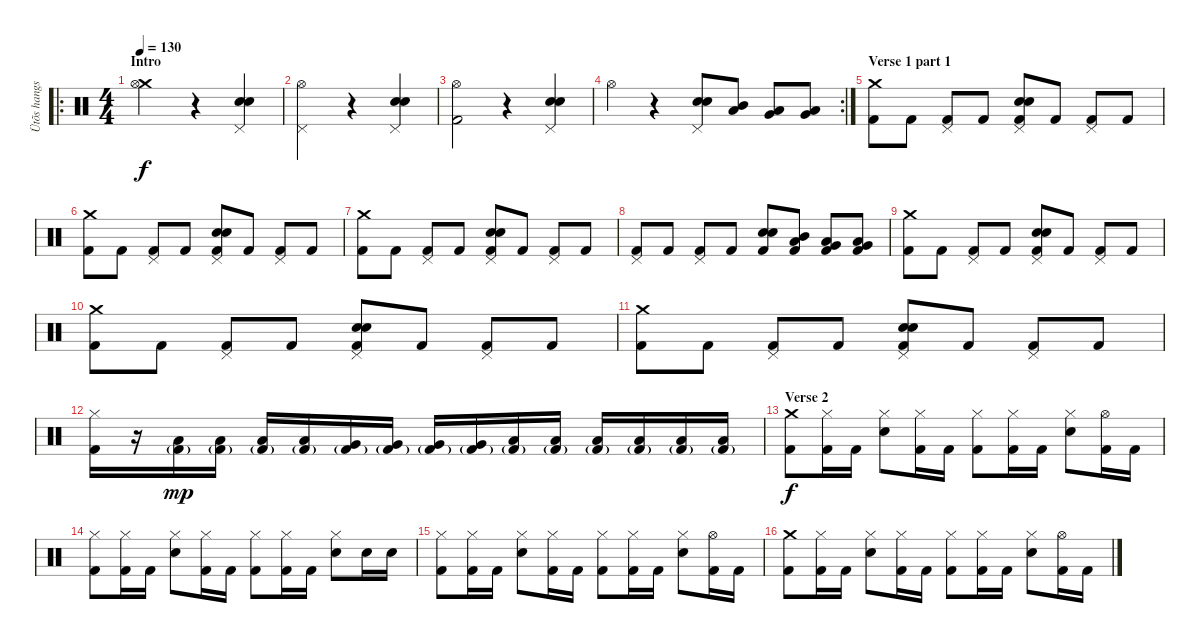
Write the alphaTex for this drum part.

\track ("Ütõs hangszer" "Ütõs hangs") {instrument percussion}
\staff {score}
\articulation defaults
\ro
\ts (4 4)
\section ("" "Intro")
\tempo 130
\clef neutral
\ks c
("Crash medium (hit)" "Hi-Hat (open)").2{dy f} r.4 ("Pedal Hi-Hat (hit)" "Snare (hit) 2" "Electric Snare (hit)").4 |
("Hi-Hat (open)" "Pedal Hi-Hat (hit)").2 r.4 ("Pedal Hi-Hat (hit)" "Snare (hit) 2" "Electric Snare (hit)").4 |
("Hi-Hat (open)" "Kick (hit) 2").2 r.4 ("Pedal Hi-Hat (hit)" "Electric Snare (hit)" "Snare (hit) 2").4 |
\rc 2 "Hi-Hat (open)".4
r.4 ("Pedal Hi-Hat (hit)" "Electric Snare (hit)" "Snare (hit) 2").8 ("Mid Tom (hit)" "Low Tom (hit)").8 ("Very Low Tom (hit)" "Low Tom (hit)").8 ("Low Floor Tom (hit)" "Very Low Tom (hit)").8 |
\section ("" "Verse 1 part 1")
("Crash medium (hit)" "Kick (hit) 2").8 "Kick (hit) 2".8 ("Pedal Hi-Hat (hit)" "Kick (hit) 2").8 "Kick (hit) 2".8 ("Pedal Hi-Hat (hit)" "Snare (hit) 2" "Electric Snare (hit)" "Kick (hit) 2").8 "Kick (hit) 2".8 ("Pedal Hi-Hat (hit)" "Kick (hit) 2").8 "Kick (hit) 2".8 |
("Crash medium (hit)" "Kick (hit) 2").8 "Kick (hit) 2".8 ("Pedal Hi-Hat (hit)" "Kick (hit) 2").8 "Kick (hit) 2".8 ("Pedal Hi-Hat (hit)" "Snare (hit) 2" "Electric Snare (hit)" "Kick (hit) 2").8 "Kick (hit) 2".8 ("Pedal Hi-Hat (hit)" "Kick (hit) 2").8 "Kick (hit) 2".8 |
("Crash medium (hit)" "Kick (hit) 2").8 "Kick (hit) 2".8 ("Pedal Hi-Hat (hit)" "Kick (hit) 2").8 "Kick (hit) 2".8 ("Pedal Hi-Hat (hit)" "Snare (hit) 2" "Electric Snare (hit)" "Kick (hit) 2").8 "Kick (hit) 2".8 ("Pedal Hi-Hat (hit)" "Kick (hit) 2").8 "Kick (hit) 2".8 |
("Pedal Hi-Hat (hit)" "Kick (hit) 2").8 "Kick (hit) 2".8 ("Pedal Hi-Hat (hit)" "Kick (hit) 2").8 "Kick (hit) 2".8 ("Electric Snare (hit)" "Snare (hit) 2" "Kick (hit) 2").8 ("Mid Tom (hit)" "Low Tom (hit)" "Kick (hit) 2").8 ("Very Low Tom (hit)" "Low Tom (hit)" "Kick (hit) 2").8 ("Low Floor Tom (hit)" "Very Low Tom (hit)" "Kick (hit) 2").8 |
("Crash medium (hit)" "Kick (hit) 2").8 "Kick (hit) 2".8 ("Pedal Hi-Hat (hit)" "Kick (hit) 2").8 "Kick (hit) 2".8 ("Pedal Hi-Hat (hit)" "Snare (hit) 2" "Electric Snare (hit)" "Kick (hit) 2").8 "Kick (hit) 2".8 ("Pedal Hi-Hat (hit)" "Kick (hit) 2").8 "Kick (hit) 2".8 |
("Crash medium (hit)" "Kick (hit) 2").8 "Kick (hit) 2".8 ("Pedal Hi-Hat (hit)" "Kick (hit) 2").8 "Kick (hit) 2".8 ("Pedal Hi-Hat (hit)" "Snare (hit) 2" "Electric Snare (hit)" "Kick (hit) 2").8 "Kick (hit) 2".8 ("Pedal Hi-Hat (hit)" "Kick (hit) 2").8 "Kick (hit) 2".8 |
("Crash medium (hit)" "Kick (hit) 2").8 "Kick (hit) 2".8 ("Pedal Hi-Hat (hit)" "Kick (hit) 2").8 "Kick (hit) 2".8 ("Pedal Hi-Hat (hit)" "Snare (hit) 2" "Electric Snare (hit)" "Kick (hit) 2").8 "Kick (hit) 2".8 ("Pedal Hi-Hat (hit)" "Kick (hit) 2").8 "Kick (hit) 2".8 |
("Hi-Hat (closed)" "Kick (hit) 2").16 r.16 ("Kick (hit) 2"{g} "Low Tom (hit)").16{dy mp} ("Kick (hit) 2"{g} "Low Tom (hit)").16 ("Kick (hit) 2"{g} "Low Tom (hit)").16 ("Kick (hit) 2"{g} "Low Tom (hit)").16 ("Kick (hit) 2"{g} "Very Low Tom (hit)").16 ("Kick (hit) 2"{g} "Very Low Tom (hit)").16 ("Kick (hit) 2"{g} "Very Low Tom (hit)").16 ("Kick (hit) 2"{g} "Very Low Tom (hit)").16 ("Kick (hit) 2"{g} "Low Floor Tom (hit)").16 ("Kick (hit) 2"{g} "Low Floor Tom (hit)").16 ("Kick (hit) 2"{g} "Low Floor Tom (hit)").16 ("Kick (hit) 2"{g} "Low Floor Tom (hit)").16 ("Kick (hit) 2"{g} "Low Floor Tom (hit)").16 ("Kick (hit) 2"{g} "Low Floor Tom (hit)").16 |
\section ("" "Verse 2")
("Crash medium (hit)" "Kick (hit) 2").8{dy f} ("Hi-Hat (closed)" "Kick (hit) 2").16 "Kick (hit) 2".16 ("Hi-Hat (closed)" "Snare (hit) 2").8 ("Hi-Hat (closed)" "Kick (hit) 2").16 "Kick (hit) 2".16 ("Hi-Hat (closed)" "Kick (hit) 2").8 ("Hi-Hat (closed)" "Kick (hit) 2").16 "Kick (hit) 2".16 ("Hi-Hat (closed)" "Snare (hit) 2").8 ("Hi-Hat (open)" "Kick (hit) 2").16 "Kick (hit) 2".16 |
("Hi-Hat (closed)" "Kick (hit) 2").8 ("Hi-Hat (closed)" "Kick (hit) 2").16 "Kick (hit) 2".16 ("Hi-Hat (closed)" "Snare (hit) 2").8 ("Hi-Hat (closed)" "Kick (hit) 2").16 "Kick (hit) 2".16 ("Hi-Hat (closed)" "Kick (hit) 2").8 ("Hi-Hat (closed)" "Kick (hit) 2").16 "Kick (hit) 2".16 ("Hi-Hat (closed)" "Snare (hit) 2").8 "Snare (hit) 2".16 "Snare (hit) 2".16 |
("Hi-Hat (closed)" "Kick (hit) 2").8 ("Hi-Hat (closed)" "Kick (hit) 2").16 "Kick (hit) 2".16 ("Hi-Hat (closed)" "Snare (hit) 2").8 ("Hi-Hat (closed)" "Kick (hit) 2").16 "Kick (hit) 2".16 ("Hi-Hat (closed)" "Kick (hit) 2").8 ("Hi-Hat (closed)" "Kick (hit) 2").16 "Kick (hit) 2".16 ("Hi-Hat (closed)" "Snare (hit) 2").8 ("Hi-Hat (open)" "Kick (hit) 2").16 "Kick (hit) 2".16 |
("Crash medium (hit)" "Kick (hit) 2").8 ("Hi-Hat (closed)" "Kick (hit) 2").16 "Kick (hit) 2".16 ("Hi-Hat (closed)" "Snare (hit) 2").8 ("Hi-Hat (closed)" "Kick (hit) 2").16 "Kick (hit) 2".16 ("Hi-Hat (closed)" "Kick (hit) 2").8 ("Hi-Hat (closed)" "Kick (hit) 2").16 "Kick (hit) 2".16 ("Hi-Hat (closed)" "Snare (hit) 2").8 ("Hi-Hat (open)" "Kick (hit) 2").16 "Kick (hit) 2".16
